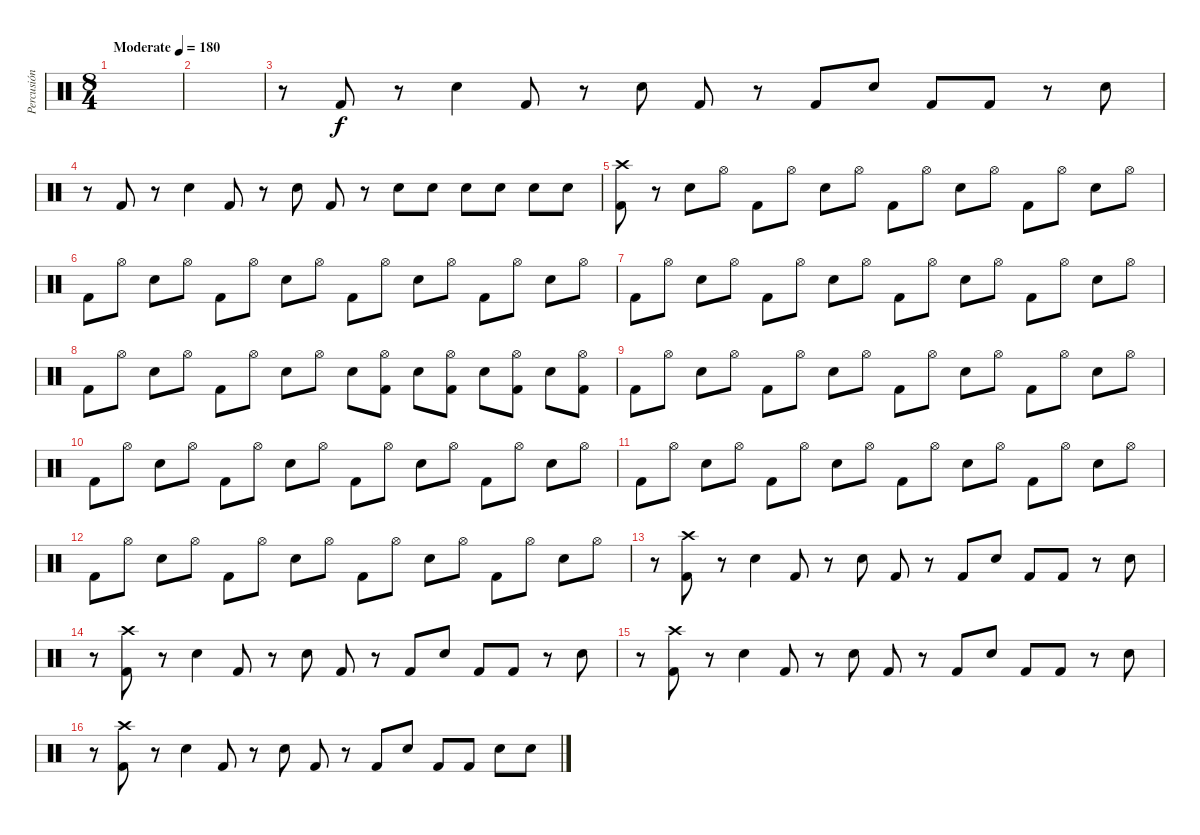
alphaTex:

\track ("Percusión" "Percusión") {instrument percussion}
\staff {score}
\articulation defaults
\ts (8 4)
\tempo (180 "Moderate")
\clef neutral
\ks c
|
|
r.8 "Kick (hit) 2".8 r.8 "Snare (hit) 2".4 "Kick (hit) 2".8 r.8 "Snare (hit) 2".8 "Kick (hit) 2".8 r.8 "Kick (hit) 2".8 "Snare (hit) 2".8 "Kick (hit) 2".8 "Kick (hit) 2".8 r.8 "Snare (hit) 2".8 |
r.8 "Kick (hit) 2".8 r.8 "Snare (hit) 2".4 "Kick (hit) 2".8 r.8 "Snare (hit) 2".8 "Kick (hit) 2".8 r.8 "Snare (hit) 2".8 "Snare (hit) 2".8 "Snare (hit) 2".8 "Snare (hit) 2".8 "Snare (hit) 2".8 "Snare (hit) 2".8 |
("Crash high (hit)" "Kick (hit) 2").8 r.8 "Snare (hit) 2".8 "Hi-Hat (open)".8 "Kick (hit) 2".8 "Hi-Hat (open)".8 "Snare (hit) 2".8 "Hi-Hat (open)".8 "Kick (hit) 2".8 "Hi-Hat (open)".8 "Snare (hit) 2".8 "Hi-Hat (open)".8 "Kick (hit) 2".8 "Hi-Hat (open)".8 "Snare (hit) 2".8 "Hi-Hat (open)".8 |
"Kick (hit) 2".8 "Hi-Hat (open)".8 "Snare (hit) 2".8 "Hi-Hat (open)".8 "Kick (hit) 2".8 "Hi-Hat (open)".8 "Snare (hit) 2".8 "Hi-Hat (open)".8 "Kick (hit) 2".8 "Hi-Hat (open)".8 "Snare (hit) 2".8 "Hi-Hat (open)".8 "Kick (hit) 2".8 "Hi-Hat (open)".8 "Snare (hit) 2".8 "Hi-Hat (open)".8 |
"Kick (hit) 2".8 "Hi-Hat (open)".8 "Snare (hit) 2".8 "Hi-Hat (open)".8 "Kick (hit) 2".8 "Hi-Hat (open)".8 "Snare (hit) 2".8 "Hi-Hat (open)".8 "Kick (hit) 2".8 "Hi-Hat (open)".8 "Snare (hit) 2".8 "Hi-Hat (open)".8 "Kick (hit) 2".8 "Hi-Hat (open)".8 "Snare (hit) 2".8 "Hi-Hat (open)".8 |
"Kick (hit) 2".8 "Hi-Hat (open)".8 "Snare (hit) 2".8 "Hi-Hat (open)".8 "Kick (hit) 2".8 "Hi-Hat (open)".8 "Snare (hit) 2".8 "Hi-Hat (open)".8 "Snare (hit) 2".8 ("Hi-Hat (open)" "Kick (hit) 2").8 "Snare (hit) 2".8 ("Hi-Hat (open)" "Kick (hit) 2").8 "Snare (hit) 2".8 ("Hi-Hat (open)" "Kick (hit) 2").8 "Snare (hit) 2".8 ("Hi-Hat (open)" "Kick (hit) 2").8 |
"Kick (hit) 2".8 "Hi-Hat (open)".8 "Snare (hit) 2".8 "Hi-Hat (open)".8 "Kick (hit) 2".8 "Hi-Hat (open)".8 "Snare (hit) 2".8 "Hi-Hat (open)".8 "Kick (hit) 2".8 "Hi-Hat (open)".8 "Snare (hit) 2".8 "Hi-Hat (open)".8 "Kick (hit) 2".8 "Hi-Hat (open)".8 "Snare (hit) 2".8 "Hi-Hat (open)".8 |
"Kick (hit) 2".8 "Hi-Hat (open)".8 "Snare (hit) 2".8 "Hi-Hat (open)".8 "Kick (hit) 2".8 "Hi-Hat (open)".8 "Snare (hit) 2".8 "Hi-Hat (open)".8 "Kick (hit) 2".8 "Hi-Hat (open)".8 "Snare (hit) 2".8 "Hi-Hat (open)".8 "Kick (hit) 2".8 "Hi-Hat (open)".8 "Snare (hit) 2".8 "Hi-Hat (open)".8 |
"Kick (hit) 2".8 "Hi-Hat (open)".8 "Snare (hit) 2".8 "Hi-Hat (open)".8 "Kick (hit) 2".8 "Hi-Hat (open)".8 "Snare (hit) 2".8 "Hi-Hat (open)".8 "Kick (hit) 2".8 "Hi-Hat (open)".8 "Snare (hit) 2".8 "Hi-Hat (open)".8 "Kick (hit) 2".8 "Hi-Hat (open)".8 "Snare (hit) 2".8 "Hi-Hat (open)".8 |
"Kick (hit) 2".8 "Hi-Hat (open)".8 "Snare (hit) 2".8 "Hi-Hat (open)".8 "Kick (hit) 2".8 "Hi-Hat (open)".8 "Snare (hit) 2".8 "Hi-Hat (open)".8 "Kick (hit) 2".8 "Hi-Hat (open)".8 "Snare (hit) 2".8 "Hi-Hat (open)".8 "Kick (hit) 2".8 "Hi-Hat (open)".8 "Snare (hit) 2".8 "Hi-Hat (open)".8 |
r.8 ("Kick (hit) 2" "Crash high (hit)").8 r.8 "Snare (hit) 2".4 "Kick (hit) 2".8 r.8 "Snare (hit) 2".8 "Kick (hit) 2".8 r.8 "Kick (hit) 2".8 "Snare (hit) 2".8 "Kick (hit) 2".8 "Kick (hit) 2".8 r.8 "Snare (hit) 2".8 |
r.8 ("Kick (hit) 2" "Crash high (hit)").8 r.8 "Snare (hit) 2".4 "Kick (hit) 2".8 r.8 "Snare (hit) 2".8 "Kick (hit) 2".8 r.8 "Kick (hit) 2".8 "Snare (hit) 2".8 "Kick (hit) 2".8 "Kick (hit) 2".8 r.8 "Snare (hit) 2".8 |
r.8 ("Kick (hit) 2" "Crash high (hit)").8 r.8 "Snare (hit) 2".4 "Kick (hit) 2".8 r.8 "Snare (hit) 2".8 "Kick (hit) 2".8 r.8 "Kick (hit) 2".8 "Snare (hit) 2".8 "Kick (hit) 2".8 "Kick (hit) 2".8 r.8 "Snare (hit) 2".8 |
r.8 ("Kick (hit) 2" "Crash high (hit)").8 r.8 "Snare (hit) 2".4 "Kick (hit) 2".8 r.8 "Snare (hit) 2".8 "Kick (hit) 2".8 r.8 "Kick (hit) 2".8 "Snare (hit) 2".8 "Kick (hit) 2".8 "Kick (hit) 2".8 "Snare (hit) 2".8 "Snare (hit) 2".8
